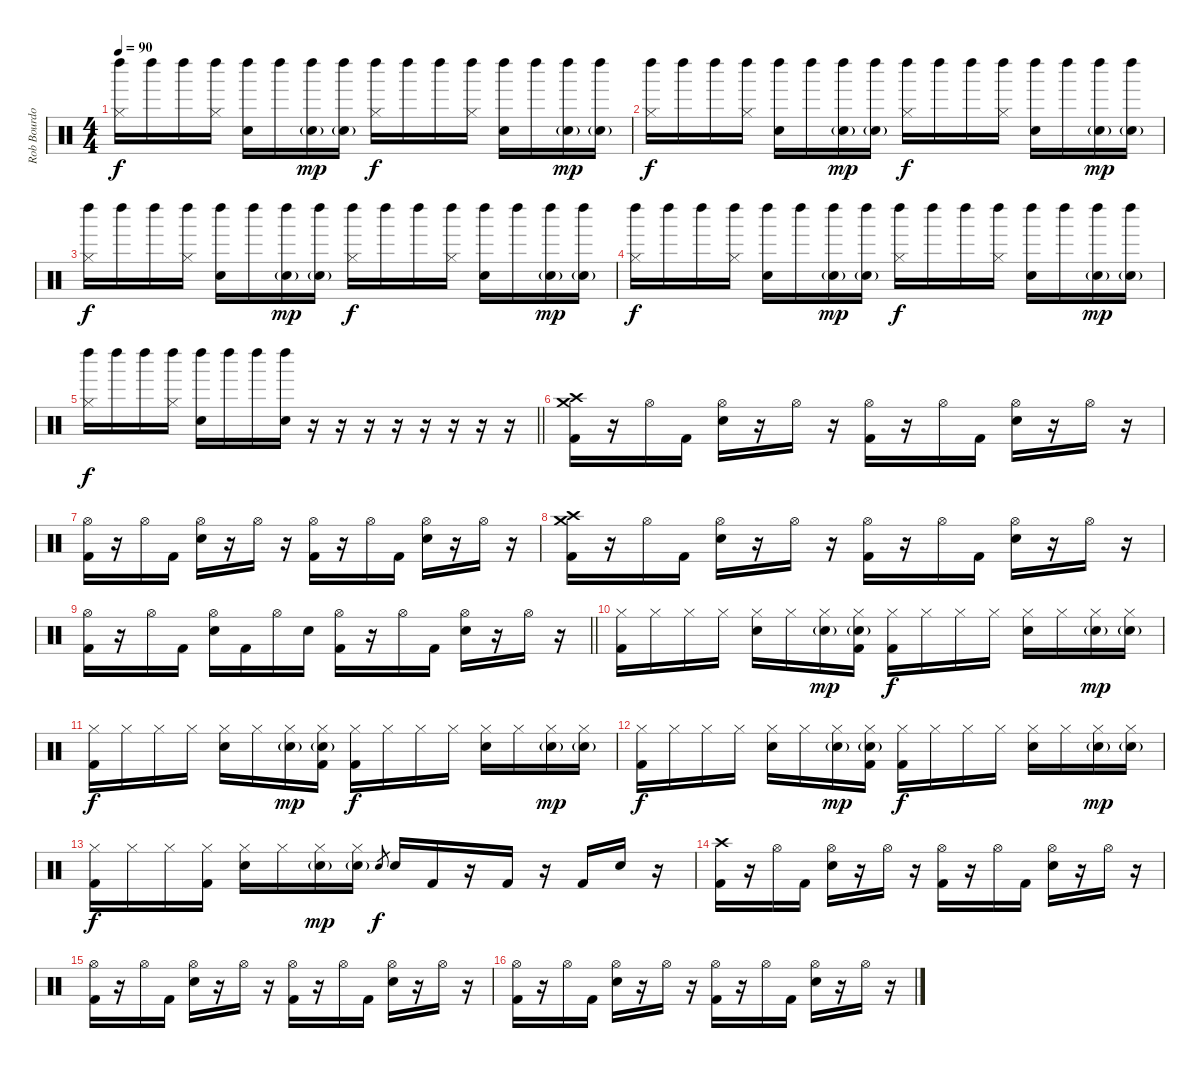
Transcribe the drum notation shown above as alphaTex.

\track ("Rob Bourdon - Drums" "Rob Bourdo") {instrument percussion}
\staff {score}
\articulation defaults
\ts (4 4)
\tempo 90
\clef neutral
\ks c
("Left Maraca (hit)" "Hi-Hat (closed)").16{dy f} "Left Maraca (hit)".16 "Left Maraca (hit)".16 ("Left Maraca (hit)" "Hi-Hat (closed)").16 ("Left Maraca (hit)" "Hand Clap (hit)").16 "Left Maraca (hit)".16 ("Left Maraca (hit)" "Hand Clap (hit)"{g}).16{dy mp} ("Left Maraca (hit)" "Hand Clap (hit)"{g}).16 ("Left Maraca (hit)" "Hi-Hat (closed)").16{dy f} "Left Maraca (hit)".16 "Left Maraca (hit)".16 ("Left Maraca (hit)" "Hi-Hat (closed)").16 ("Left Maraca (hit)" "Hand Clap (hit)").16 "Left Maraca (hit)".16 ("Left Maraca (hit)" "Hand Clap (hit)"{g}).16{dy mp} ("Left Maraca (hit)" "Hand Clap (hit)"{g}).16 |
("Left Maraca (hit)" "Hi-Hat (closed)").16{dy f} "Left Maraca (hit)".16 "Left Maraca (hit)".16 ("Left Maraca (hit)" "Hi-Hat (closed)").16 ("Left Maraca (hit)" "Hand Clap (hit)").16 "Left Maraca (hit)".16 ("Left Maraca (hit)" "Hand Clap (hit)"{g}).16{dy mp} ("Left Maraca (hit)" "Hand Clap (hit)"{g}).16 ("Left Maraca (hit)" "Hi-Hat (closed)").16{dy f} "Left Maraca (hit)".16 "Left Maraca (hit)".16 ("Left Maraca (hit)" "Hi-Hat (closed)").16 ("Left Maraca (hit)" "Hand Clap (hit)").16 "Left Maraca (hit)".16 ("Left Maraca (hit)" "Hand Clap (hit)"{g}).16{dy mp} ("Left Maraca (hit)" "Hand Clap (hit)"{g}).16 |
("Left Maraca (hit)" "Hi-Hat (closed)").16{dy f} "Left Maraca (hit)".16 "Left Maraca (hit)".16 ("Left Maraca (hit)" "Hi-Hat (closed)").16 ("Left Maraca (hit)" "Hand Clap (hit)").16 "Left Maraca (hit)".16 ("Left Maraca (hit)" "Hand Clap (hit)"{g}).16{dy mp} ("Left Maraca (hit)" "Hand Clap (hit)"{g}).16 ("Left Maraca (hit)" "Hi-Hat (closed)").16{dy f} "Left Maraca (hit)".16 "Left Maraca (hit)".16 ("Left Maraca (hit)" "Hi-Hat (closed)").16 ("Left Maraca (hit)" "Hand Clap (hit)").16 "Left Maraca (hit)".16 ("Left Maraca (hit)" "Hand Clap (hit)"{g}).16{dy mp} ("Left Maraca (hit)" "Hand Clap (hit)"{g}).16 |
("Left Maraca (hit)" "Hi-Hat (closed)").16{dy f} "Left Maraca (hit)".16 "Left Maraca (hit)".16 ("Left Maraca (hit)" "Hi-Hat (closed)").16 ("Left Maraca (hit)" "Hand Clap (hit)").16 "Left Maraca (hit)".16 ("Left Maraca (hit)" "Hand Clap (hit)"{g}).16{dy mp} ("Left Maraca (hit)" "Hand Clap (hit)"{g}).16 ("Left Maraca (hit)" "Hi-Hat (closed)").16{dy f} "Left Maraca (hit)".16 "Left Maraca (hit)".16 ("Left Maraca (hit)" "Hi-Hat (closed)").16 ("Left Maraca (hit)" "Hand Clap (hit)").16 "Left Maraca (hit)".16 ("Left Maraca (hit)" "Hand Clap (hit)"{g}).16{dy mp} ("Left Maraca (hit)" "Hand Clap (hit)"{g}).16 |
\barLineRight lightlight
("Left Maraca (hit)" "Hi-Hat (closed)").16{dy f} "Left Maraca (hit)".16 "Left Maraca (hit)".16 ("Left Maraca (hit)" "Hi-Hat (closed)").16 ("Left Maraca (hit)" "Hand Clap (hit)").16 "Left Maraca (hit)".16 "Left Maraca (hit)".16 ("Left Maraca (hit)" "Hand Clap (hit)").16 r.16 r.16 r.16 r.16 r.16 r.16 r.16 r.16 |
("Crash high (hit)" "Crash medium (hit)" "Kick (hit) 2").16 r.16 "Hi-Hat (open)".16 "Kick (hit) 2".16 ("Hi-Hat (open)" "Electric Snare (hit)").16 r.16 "Hi-Hat (open)".16 r.16 ("Hi-Hat (open)" "Kick (hit) 2").16 r.16 "Hi-Hat (open)".16 "Kick (hit) 2".16 ("Hi-Hat (open)" "Electric Snare (hit)").16 r.16 "Hi-Hat (open)".16 r.16 |
("Hi-Hat (open)" "Kick (hit) 2").16 r.16 "Hi-Hat (open)".16 "Kick (hit) 2".16 ("Hi-Hat (open)" "Electric Snare (hit)").16 r.16 "Hi-Hat (open)".16 r.16 ("Hi-Hat (open)" "Kick (hit) 2").16 r.16 "Hi-Hat (open)".16 "Kick (hit) 2".16 ("Hi-Hat (open)" "Electric Snare (hit)").16 r.16 "Hi-Hat (open)".16 r.16 |
("Crash high (hit)" "Crash medium (hit)" "Kick (hit) 2").16 r.16 "Hi-Hat (open)".16 "Kick (hit) 2".16 ("Hi-Hat (open)" "Electric Snare (hit)").16 r.16 "Hi-Hat (open)".16 r.16 ("Hi-Hat (open)" "Kick (hit) 2").16 r.16 "Hi-Hat (open)".16 "Kick (hit) 2".16 ("Hi-Hat (open)" "Electric Snare (hit)").16 r.16 "Hi-Hat (open)".16 r.16 |
\barLineRight lightlight
("Hi-Hat (open)" "Kick (hit) 2").16 r.16 "Hi-Hat (open)".16 "Kick (hit) 2".16 ("Hi-Hat (open)" "Electric Snare (hit)").16 "Kick (hit) 2".16 "Hi-Hat (open)".16 "Electric Snare (hit)".16 ("Hi-Hat (open)" "Kick (hit) 2").16 r.16 "Hi-Hat (open)".16 "Kick (hit) 2".16 ("Hi-Hat (open)" "Electric Snare (hit)").16 r.16 "Hi-Hat (open)".16 r.16 |
("Hi-Hat (closed)" "Kick (hit) 2").16 "Hi-Hat (closed)".16 "Hi-Hat (closed)".16 "Hi-Hat (closed)".16 ("Hi-Hat (closed)" "Hand Clap (hit)").16 "Hi-Hat (closed)".16 ("Hi-Hat (closed)" "Hand Clap (hit)"{g}).16{dy mp} ("Hi-Hat (closed)" "Hand Clap (hit)"{g} "Kick (hit) 2").16 ("Hi-Hat (closed)" "Kick (hit) 2").16{dy f} "Hi-Hat (closed)".16 "Hi-Hat (closed)".16 "Hi-Hat (closed)".16 ("Hi-Hat (closed)" "Hand Clap (hit)").16 "Hi-Hat (closed)".16 ("Hi-Hat (closed)" "Hand Clap (hit)"{g}).16{dy mp} ("Hi-Hat (closed)" "Hand Clap (hit)"{g}).16 |
("Hi-Hat (closed)" "Kick (hit) 2").16{dy f} "Hi-Hat (closed)".16 "Hi-Hat (closed)".16 "Hi-Hat (closed)".16 ("Hi-Hat (closed)" "Hand Clap (hit)").16 "Hi-Hat (closed)".16 ("Hi-Hat (closed)" "Hand Clap (hit)"{g}).16{dy mp} ("Hi-Hat (closed)" "Hand Clap (hit)"{g} "Kick (hit) 2").16 ("Hi-Hat (closed)" "Kick (hit) 2").16{dy f} "Hi-Hat (closed)".16 "Hi-Hat (closed)".16 "Hi-Hat (closed)".16 ("Hi-Hat (closed)" "Hand Clap (hit)").16 "Hi-Hat (closed)".16 ("Hi-Hat (closed)" "Hand Clap (hit)"{g}).16{dy mp} ("Hi-Hat (closed)" "Hand Clap (hit)"{g}).16 |
("Hi-Hat (closed)" "Kick (hit) 2").16{dy f} "Hi-Hat (closed)".16 "Hi-Hat (closed)".16 "Hi-Hat (closed)".16 ("Hi-Hat (closed)" "Hand Clap (hit)").16 "Hi-Hat (closed)".16 ("Hi-Hat (closed)" "Hand Clap (hit)"{g}).16{dy mp} ("Hi-Hat (closed)" "Hand Clap (hit)"{g} "Kick (hit) 2").16 ("Hi-Hat (closed)" "Kick (hit) 2").16{dy f} "Hi-Hat (closed)".16 "Hi-Hat (closed)".16 "Hi-Hat (closed)".16 ("Hi-Hat (closed)" "Hand Clap (hit)").16 "Hi-Hat (closed)".16 ("Hi-Hat (closed)" "Hand Clap (hit)"{g}).16{dy mp} ("Hi-Hat (closed)" "Hand Clap (hit)"{g}).16 |
("Hi-Hat (closed)" "Kick (hit) 2").16{dy f} "Hi-Hat (closed)".16 "Hi-Hat (closed)".16 ("Hi-Hat (closed)" "Kick (hit) 2").16 ("Hi-Hat (closed)" "Hand Clap (hit)").16 "Hi-Hat (closed)".16 ("Hi-Hat (closed)" "Hand Clap (hit)"{g}).16{dy mp} ("Hi-Hat (closed)" "Hand Clap (hit)"{g}).16 "Electric Snare (hit)".8{gr dy f} "Electric Snare (hit)".16 "Kick (hit) 2".16 r.16 "Kick (hit) 2".16 r.16 "Kick (hit) 2".16 "Electric Snare (hit)".16 r.16 |
("Crash high (hit)" "Kick (hit) 2").16 r.16 "Hi-Hat (open)".16 "Kick (hit) 2".16 ("Hi-Hat (open)" "Electric Snare (hit)").16 r.16 "Hi-Hat (open)".16 r.16 ("Hi-Hat (open)" "Kick (hit) 2").16 r.16 "Hi-Hat (open)".16 "Kick (hit) 2".16 ("Hi-Hat (open)" "Electric Snare (hit)").16 r.16 "Hi-Hat (open)".16 r.16 |
("Hi-Hat (open)" "Kick (hit) 2").16 r.16 "Hi-Hat (open)".16 "Kick (hit) 2".16 ("Hi-Hat (open)" "Electric Snare (hit)").16 r.16 "Hi-Hat (open)".16 r.16 ("Hi-Hat (open)" "Kick (hit) 2").16 r.16 "Hi-Hat (open)".16 "Kick (hit) 2".16 ("Hi-Hat (open)" "Electric Snare (hit)").16 r.16 "Hi-Hat (open)".16 r.16 |
("Hi-Hat (open)" "Kick (hit) 2").16 r.16 "Hi-Hat (open)".16 "Kick (hit) 2".16 ("Hi-Hat (open)" "Electric Snare (hit)").16 r.16 "Hi-Hat (open)".16 r.16 ("Hi-Hat (open)" "Kick (hit) 2").16 r.16 "Hi-Hat (open)".16 "Kick (hit) 2".16 ("Hi-Hat (open)" "Electric Snare (hit)").16 r.16 "Hi-Hat (open)".16 r.16
